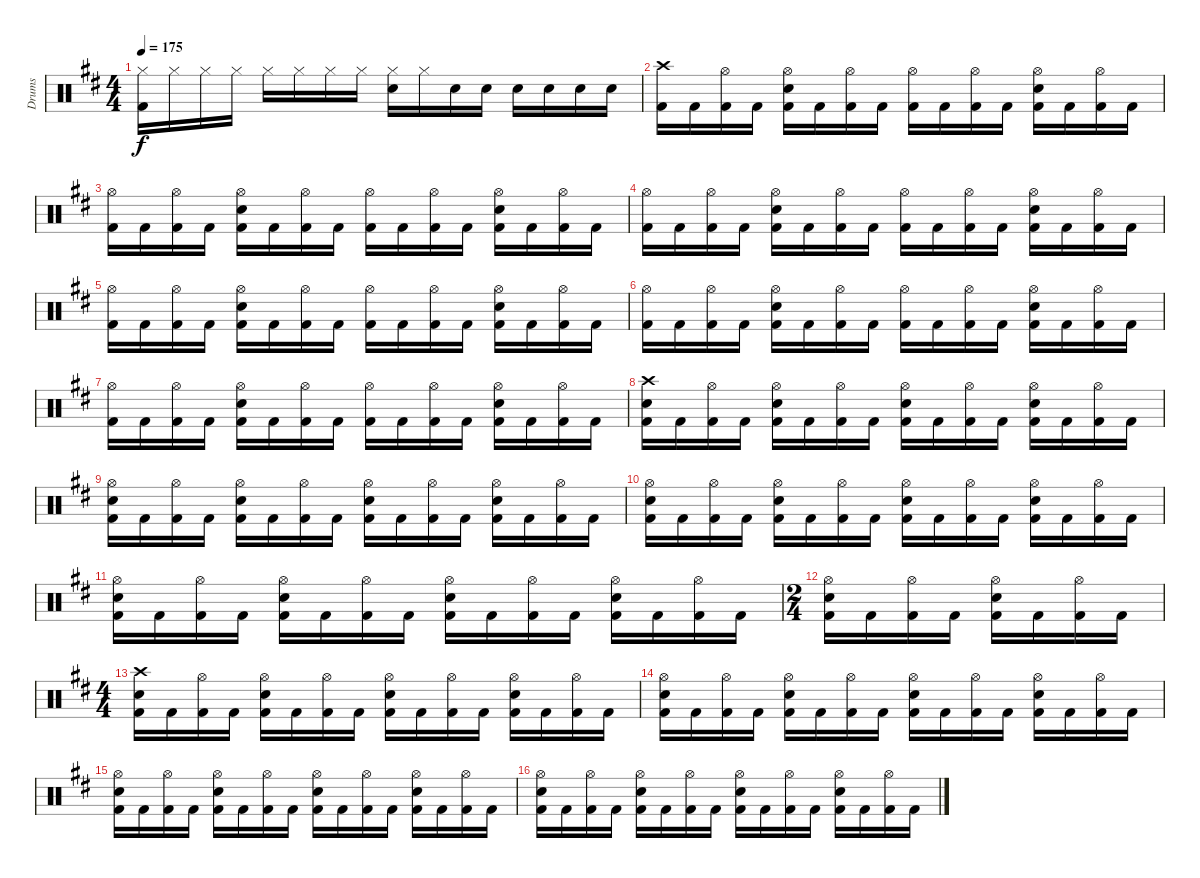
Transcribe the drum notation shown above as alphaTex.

\track ("Drums" "Drums") {instrument percussion}
\staff {score}
\articulation defaults
\ts (4 4)
\tempo 175
\clef neutral
\ks bminor
("Kick (hit) 2" "Hi-Hat (closed)").16{dy f} "Hi-Hat (closed)".16 "Hi-Hat (closed)".16 "Hi-Hat (closed)".16 "Hi-Hat (closed)".16 "Hi-Hat (closed)".16 "Hi-Hat (closed)".16 "Hi-Hat (closed)".16 ("Electric Snare (hit)" "Hi-Hat (closed)").16 "Hi-Hat (closed)".16 "Electric Snare (hit)".16 "Electric Snare (hit)".16 "Electric Snare (hit)".16 "Electric Snare (hit)".16 "Electric Snare (hit)".16 "Electric Snare (hit)".16 |
("Kick (hit) 2" "Crash high (hit)").16 "Kick (hit) 2".16 ("Kick (hit) 2" "Hi-Hat (open)").16 "Kick (hit) 2".16 ("Kick (hit) 2" "Electric Snare (hit)" "Hi-Hat (open)").16 "Kick (hit) 2".16 ("Kick (hit) 2" "Hi-Hat (open)").16 "Kick (hit) 2".16 ("Kick (hit) 2" "Hi-Hat (open)").16 "Kick (hit) 2".16 ("Kick (hit) 2" "Hi-Hat (open)").16 "Kick (hit) 2".16 ("Kick (hit) 2" "Electric Snare (hit)" "Hi-Hat (open)").16 "Kick (hit) 2".16 ("Kick (hit) 2" "Hi-Hat (open)").16 "Kick (hit) 2".16 |
("Kick (hit) 2" "Hi-Hat (open)").16 "Kick (hit) 2".16 ("Kick (hit) 2" "Hi-Hat (open)").16 "Kick (hit) 2".16 ("Kick (hit) 2" "Electric Snare (hit)" "Hi-Hat (open)").16 "Kick (hit) 2".16 ("Kick (hit) 2" "Hi-Hat (open)").16 "Kick (hit) 2".16 ("Kick (hit) 2" "Hi-Hat (open)").16 "Kick (hit) 2".16 ("Kick (hit) 2" "Hi-Hat (open)").16 "Kick (hit) 2".16 ("Kick (hit) 2" "Electric Snare (hit)" "Hi-Hat (open)").16 "Kick (hit) 2".16 ("Kick (hit) 2" "Hi-Hat (open)").16 "Kick (hit) 2".16 |
("Kick (hit) 2" "Hi-Hat (open)").16 "Kick (hit) 2".16 ("Kick (hit) 2" "Hi-Hat (open)").16 "Kick (hit) 2".16 ("Kick (hit) 2" "Electric Snare (hit)" "Hi-Hat (open)").16 "Kick (hit) 2".16 ("Kick (hit) 2" "Hi-Hat (open)").16 "Kick (hit) 2".16 ("Kick (hit) 2" "Hi-Hat (open)").16 "Kick (hit) 2".16 ("Kick (hit) 2" "Hi-Hat (open)").16 "Kick (hit) 2".16 ("Kick (hit) 2" "Electric Snare (hit)" "Hi-Hat (open)").16 "Kick (hit) 2".16 ("Kick (hit) 2" "Hi-Hat (open)").16 "Kick (hit) 2".16 |
("Kick (hit) 2" "Hi-Hat (open)").16 "Kick (hit) 2".16 ("Kick (hit) 2" "Hi-Hat (open)").16 "Kick (hit) 2".16 ("Kick (hit) 2" "Electric Snare (hit)" "Hi-Hat (open)").16 "Kick (hit) 2".16 ("Kick (hit) 2" "Hi-Hat (open)").16 "Kick (hit) 2".16 ("Kick (hit) 2" "Hi-Hat (open)").16 "Kick (hit) 2".16 ("Kick (hit) 2" "Hi-Hat (open)").16 "Kick (hit) 2".16 ("Kick (hit) 2" "Electric Snare (hit)" "Hi-Hat (open)").16 "Kick (hit) 2".16 ("Kick (hit) 2" "Hi-Hat (open)").16 "Kick (hit) 2".16 |
("Kick (hit) 2" "Hi-Hat (open)").16 "Kick (hit) 2".16 ("Kick (hit) 2" "Hi-Hat (open)").16 "Kick (hit) 2".16 ("Kick (hit) 2" "Electric Snare (hit)" "Hi-Hat (open)").16 "Kick (hit) 2".16 ("Kick (hit) 2" "Hi-Hat (open)").16 "Kick (hit) 2".16 ("Kick (hit) 2" "Hi-Hat (open)").16 "Kick (hit) 2".16 ("Kick (hit) 2" "Hi-Hat (open)").16 "Kick (hit) 2".16 ("Kick (hit) 2" "Electric Snare (hit)" "Hi-Hat (open)").16 "Kick (hit) 2".16 ("Kick (hit) 2" "Hi-Hat (open)").16 "Kick (hit) 2".16 |
("Kick (hit) 2" "Hi-Hat (open)").16 "Kick (hit) 2".16 ("Kick (hit) 2" "Hi-Hat (open)").16 "Kick (hit) 2".16 ("Kick (hit) 2" "Electric Snare (hit)" "Hi-Hat (open)").16 "Kick (hit) 2".16 ("Kick (hit) 2" "Hi-Hat (open)").16 "Kick (hit) 2".16 ("Kick (hit) 2" "Hi-Hat (open)").16 "Kick (hit) 2".16 ("Kick (hit) 2" "Hi-Hat (open)").16 "Kick (hit) 2".16 ("Kick (hit) 2" "Electric Snare (hit)" "Hi-Hat (open)").16 "Kick (hit) 2".16 ("Kick (hit) 2" "Hi-Hat (open)").16 "Kick (hit) 2".16 |
("Kick (hit) 2" "Electric Snare (hit)" "Crash high (hit)").16 "Kick (hit) 2".16 ("Kick (hit) 2" "Hi-Hat (open)").16 "Kick (hit) 2".16 ("Kick (hit) 2" "Electric Snare (hit)" "Hi-Hat (open)").16 "Kick (hit) 2".16 ("Kick (hit) 2" "Hi-Hat (open)").16 "Kick (hit) 2".16 ("Kick (hit) 2" "Electric Snare (hit)" "Hi-Hat (open)").16 "Kick (hit) 2".16 ("Kick (hit) 2" "Hi-Hat (open)").16 "Kick (hit) 2".16 ("Kick (hit) 2" "Electric Snare (hit)" "Hi-Hat (open)").16 "Kick (hit) 2".16 ("Kick (hit) 2" "Hi-Hat (open)").16 "Kick (hit) 2".16 |
("Kick (hit) 2" "Electric Snare (hit)" "Hi-Hat (open)").16 "Kick (hit) 2".16 ("Kick (hit) 2" "Hi-Hat (open)").16 "Kick (hit) 2".16 ("Kick (hit) 2" "Electric Snare (hit)" "Hi-Hat (open)").16 "Kick (hit) 2".16 ("Kick (hit) 2" "Hi-Hat (open)").16 "Kick (hit) 2".16 ("Kick (hit) 2" "Electric Snare (hit)" "Hi-Hat (open)").16 "Kick (hit) 2".16 ("Kick (hit) 2" "Hi-Hat (open)").16 "Kick (hit) 2".16 ("Kick (hit) 2" "Electric Snare (hit)" "Hi-Hat (open)").16 "Kick (hit) 2".16 ("Kick (hit) 2" "Hi-Hat (open)").16 "Kick (hit) 2".16 |
("Kick (hit) 2" "Electric Snare (hit)" "Hi-Hat (open)").16 "Kick (hit) 2".16 ("Kick (hit) 2" "Hi-Hat (open)").16 "Kick (hit) 2".16 ("Kick (hit) 2" "Electric Snare (hit)" "Hi-Hat (open)").16 "Kick (hit) 2".16 ("Kick (hit) 2" "Hi-Hat (open)").16 "Kick (hit) 2".16 ("Kick (hit) 2" "Electric Snare (hit)" "Hi-Hat (open)").16 "Kick (hit) 2".16 ("Kick (hit) 2" "Hi-Hat (open)").16 "Kick (hit) 2".16 ("Kick (hit) 2" "Electric Snare (hit)" "Hi-Hat (open)").16 "Kick (hit) 2".16 ("Kick (hit) 2" "Hi-Hat (open)").16 "Kick (hit) 2".16 |
("Kick (hit) 2" "Electric Snare (hit)" "Hi-Hat (open)").16 "Kick (hit) 2".16 ("Kick (hit) 2" "Hi-Hat (open)").16 "Kick (hit) 2".16 ("Kick (hit) 2" "Electric Snare (hit)" "Hi-Hat (open)").16 "Kick (hit) 2".16 ("Kick (hit) 2" "Hi-Hat (open)").16 "Kick (hit) 2".16 ("Kick (hit) 2" "Electric Snare (hit)" "Hi-Hat (open)").16 "Kick (hit) 2".16 ("Kick (hit) 2" "Hi-Hat (open)").16 "Kick (hit) 2".16 ("Kick (hit) 2" "Electric Snare (hit)" "Hi-Hat (open)").16 "Kick (hit) 2".16 ("Kick (hit) 2" "Hi-Hat (open)").16 "Kick (hit) 2".16 |
\ts (2 4)
("Kick (hit) 2" "Electric Snare (hit)" "Hi-Hat (open)").16 "Kick (hit) 2".16 ("Kick (hit) 2" "Hi-Hat (open)").16 "Kick (hit) 2".16 ("Kick (hit) 2" "Electric Snare (hit)" "Hi-Hat (open)").16 "Kick (hit) 2".16 ("Kick (hit) 2" "Hi-Hat (open)").16 "Kick (hit) 2".16 |
\ts (4 4)
("Kick (hit) 2" "Electric Snare (hit)" "Crash high (hit)").16 "Kick (hit) 2".16 ("Kick (hit) 2" "Hi-Hat (open)").16 "Kick (hit) 2".16 ("Kick (hit) 2" "Electric Snare (hit)" "Hi-Hat (open)").16 "Kick (hit) 2".16 ("Kick (hit) 2" "Hi-Hat (open)").16 "Kick (hit) 2".16 ("Kick (hit) 2" "Electric Snare (hit)" "Hi-Hat (open)").16 "Kick (hit) 2".16 ("Kick (hit) 2" "Hi-Hat (open)").16 "Kick (hit) 2".16 ("Kick (hit) 2" "Electric Snare (hit)" "Hi-Hat (open)").16 "Kick (hit) 2".16 ("Kick (hit) 2" "Hi-Hat (open)").16 "Kick (hit) 2".16 |
("Kick (hit) 2" "Electric Snare (hit)" "Hi-Hat (open)").16 "Kick (hit) 2".16 ("Kick (hit) 2" "Hi-Hat (open)").16 "Kick (hit) 2".16 ("Kick (hit) 2" "Electric Snare (hit)" "Hi-Hat (open)").16 "Kick (hit) 2".16 ("Kick (hit) 2" "Hi-Hat (open)").16 "Kick (hit) 2".16 ("Kick (hit) 2" "Electric Snare (hit)" "Hi-Hat (open)").16 "Kick (hit) 2".16 ("Kick (hit) 2" "Hi-Hat (open)").16 "Kick (hit) 2".16 ("Kick (hit) 2" "Electric Snare (hit)" "Hi-Hat (open)").16 "Kick (hit) 2".16 ("Kick (hit) 2" "Hi-Hat (open)").16 "Kick (hit) 2".16 |
("Kick (hit) 2" "Electric Snare (hit)" "Hi-Hat (open)").16 "Kick (hit) 2".16 ("Kick (hit) 2" "Hi-Hat (open)").16 "Kick (hit) 2".16 ("Kick (hit) 2" "Electric Snare (hit)" "Hi-Hat (open)").16 "Kick (hit) 2".16 ("Kick (hit) 2" "Hi-Hat (open)").16 "Kick (hit) 2".16 ("Kick (hit) 2" "Electric Snare (hit)" "Hi-Hat (open)").16 "Kick (hit) 2".16 ("Kick (hit) 2" "Hi-Hat (open)").16 "Kick (hit) 2".16 ("Kick (hit) 2" "Electric Snare (hit)" "Hi-Hat (open)").16 "Kick (hit) 2".16 ("Kick (hit) 2" "Hi-Hat (open)").16 "Kick (hit) 2".16 |
("Kick (hit) 2" "Electric Snare (hit)" "Hi-Hat (open)").16 "Kick (hit) 2".16 ("Kick (hit) 2" "Hi-Hat (open)").16 "Kick (hit) 2".16 ("Kick (hit) 2" "Electric Snare (hit)" "Hi-Hat (open)").16 "Kick (hit) 2".16 ("Kick (hit) 2" "Hi-Hat (open)").16 "Kick (hit) 2".16 ("Kick (hit) 2" "Electric Snare (hit)" "Hi-Hat (open)").16 "Kick (hit) 2".16 ("Kick (hit) 2" "Hi-Hat (open)").16 "Kick (hit) 2".16 ("Kick (hit) 2" "Electric Snare (hit)" "Hi-Hat (open)").16 "Kick (hit) 2".16 ("Kick (hit) 2" "Hi-Hat (open)").16 "Kick (hit) 2".16
